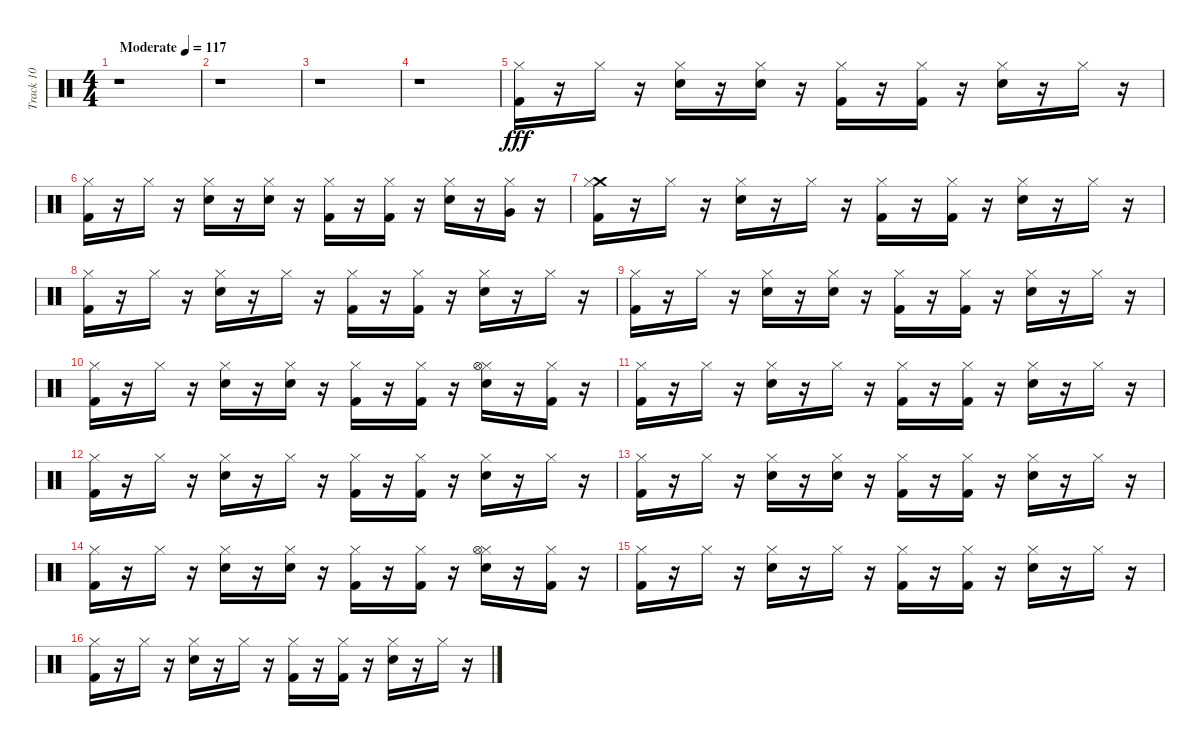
\track ("Track 10" "Track 10") {instrument percussion}
\staff {score}
\articulation defaults
\ts (4 4)
\tempo (117 "Moderate")
\clef neutral
\ks c
r.1{dy fff} |
r.1 |
r.1 |
r.1 |
("Hi-Hat (closed)" "Kick (hit) 2").16 r.16 "Hi-Hat (closed)".16 r.16 ("Hi-Hat (closed)" "Snare (hit) 2").16 r.16 ("Hi-Hat (closed)" "Snare (hit) 2").16 r.16 ("Hi-Hat (closed)" "Kick (hit) 2").16 r.16 ("Hi-Hat (closed)" "Kick (hit) 2").16 r.16 ("Hi-Hat (closed)" "Snare (hit) 2").16 r.16 "Hi-Hat (closed)".16 r.16 |
("Hi-Hat (closed)" "Kick (hit) 2").16 r.16 "Hi-Hat (closed)".16 r.16 ("Hi-Hat (closed)" "Snare (hit) 2").16 r.16 ("Hi-Hat (closed)" "Snare (hit) 2").16 r.16 ("Hi-Hat (closed)" "Kick (hit) 2").16 r.16 ("Hi-Hat (closed)" "Kick (hit) 2").16 r.16 ("Hi-Hat (closed)" "Snare (hit) 2").16 r.16 ("Hi-Hat (closed)" "Very Low Tom (hit)").16 r.16 |
("Crash medium (hit)" "Hi-Hat (closed)" "Kick (hit) 2").16 r.16 "Hi-Hat (closed)".16 r.16 ("Hi-Hat (closed)" "Snare (hit) 2").16 r.16 "Hi-Hat (closed)".16 r.16 ("Hi-Hat (closed)" "Kick (hit) 2").16 r.16 ("Hi-Hat (closed)" "Kick (hit) 2").16 r.16 ("Hi-Hat (closed)" "Snare (hit) 2").16 r.16 "Hi-Hat (closed)".16 r.16 |
("Hi-Hat (closed)" "Kick (hit) 2").16 r.16 "Hi-Hat (closed)".16 r.16 ("Hi-Hat (closed)" "Snare (hit) 2").16 r.16 "Hi-Hat (closed)".16 r.16 ("Hi-Hat (closed)" "Kick (hit) 2").16 r.16 ("Hi-Hat (closed)" "Kick (hit) 2").16 r.16 ("Hi-Hat (closed)" "Snare (hit) 2").16 r.16 "Hi-Hat (closed)".16 r.16 |
("Hi-Hat (closed)" "Kick (hit) 2").16 r.16 "Hi-Hat (closed)".16 r.16 ("Hi-Hat (closed)" "Snare (hit) 2").16 r.16 ("Hi-Hat (closed)" "Snare (hit) 2").16 r.16 ("Hi-Hat (closed)" "Kick (hit) 2").16 r.16 ("Hi-Hat (closed)" "Kick (hit) 2").16 r.16 ("Hi-Hat (closed)" "Snare (hit) 2").16 r.16 "Hi-Hat (closed)".16 r.16 |
("Hi-Hat (closed)" "Kick (hit) 2").16 r.16 "Hi-Hat (closed)".16 r.16 ("Hi-Hat (closed)" "Snare (hit) 2").16 r.16 ("Hi-Hat (closed)" "Snare (hit) 2").16 r.16 ("Hi-Hat (closed)" "Kick (hit) 2").16 r.16 ("Hi-Hat (closed)" "Kick (hit) 2").16 r.16 ("Hi-Hat (closed)" "Hi-Hat (open)" "Snare (hit) 2").16 r.16 ("Hi-Hat (closed)" "Kick (hit) 2").16 r.16 |
("Hi-Hat (closed)" "Kick (hit) 2").16 r.16 "Hi-Hat (closed)".16 r.16 ("Hi-Hat (closed)" "Snare (hit) 2").16 r.16 "Hi-Hat (closed)".16 r.16 ("Hi-Hat (closed)" "Kick (hit) 2").16 r.16 ("Hi-Hat (closed)" "Kick (hit) 2").16 r.16 ("Hi-Hat (closed)" "Snare (hit) 2").16 r.16 "Hi-Hat (closed)".16 r.16 |
("Hi-Hat (closed)" "Kick (hit) 2").16 r.16 "Hi-Hat (closed)".16 r.16 ("Hi-Hat (closed)" "Snare (hit) 2").16 r.16 "Hi-Hat (closed)".16 r.16 ("Hi-Hat (closed)" "Kick (hit) 2").16 r.16 ("Hi-Hat (closed)" "Kick (hit) 2").16 r.16 ("Hi-Hat (closed)" "Snare (hit) 2").16 r.16 "Hi-Hat (closed)".16 r.16 |
("Hi-Hat (closed)" "Kick (hit) 2").16 r.16 "Hi-Hat (closed)".16 r.16 ("Hi-Hat (closed)" "Snare (hit) 2").16 r.16 ("Hi-Hat (closed)" "Snare (hit) 2").16 r.16 ("Hi-Hat (closed)" "Kick (hit) 2").16 r.16 ("Hi-Hat (closed)" "Kick (hit) 2").16 r.16 ("Hi-Hat (closed)" "Snare (hit) 2").16 r.16 "Hi-Hat (closed)".16 r.16 |
("Hi-Hat (closed)" "Kick (hit) 2").16 r.16 "Hi-Hat (closed)".16 r.16 ("Hi-Hat (closed)" "Snare (hit) 2").16 r.16 ("Hi-Hat (closed)" "Snare (hit) 2").16 r.16 ("Hi-Hat (closed)" "Kick (hit) 2").16 r.16 ("Hi-Hat (closed)" "Kick (hit) 2").16 r.16 ("Hi-Hat (closed)" "Hi-Hat (open)" "Snare (hit) 2").16 r.16 ("Hi-Hat (closed)" "Kick (hit) 2").16 r.16 |
("Hi-Hat (closed)" "Kick (hit) 2").16 r.16 "Hi-Hat (closed)".16 r.16 ("Hi-Hat (closed)" "Snare (hit) 2").16 r.16 "Hi-Hat (closed)".16 r.16 ("Hi-Hat (closed)" "Kick (hit) 2").16 r.16 ("Hi-Hat (closed)" "Kick (hit) 2").16 r.16 ("Hi-Hat (closed)" "Snare (hit) 2").16 r.16 "Hi-Hat (closed)".16 r.16 |
("Hi-Hat (closed)" "Kick (hit) 2").16 r.16 "Hi-Hat (closed)".16 r.16 ("Hi-Hat (closed)" "Snare (hit) 2").16 r.16 "Hi-Hat (closed)".16 r.16 ("Hi-Hat (closed)" "Kick (hit) 2").16 r.16 ("Hi-Hat (closed)" "Kick (hit) 2").16 r.16 ("Hi-Hat (closed)" "Snare (hit) 2").16 r.16 "Hi-Hat (closed)".16 r.16
